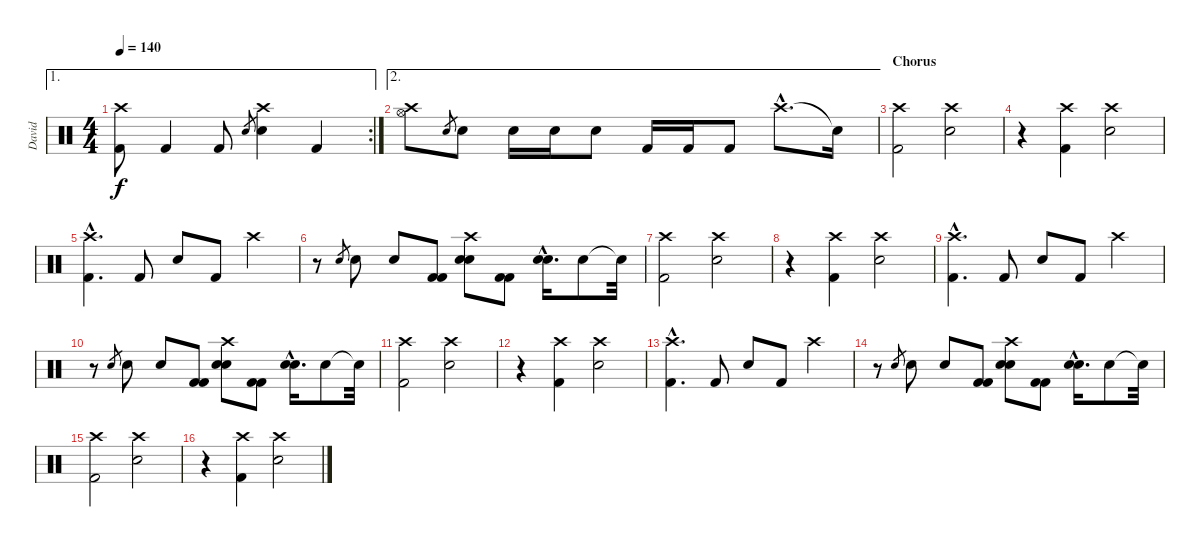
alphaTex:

\track ("David" "David") {instrument percussion}
\staff {score}
\articulation defaults
\ae 1
\rc 2
\ts (4 4)
\tempo 140
\clef neutral
\ks c
("Crash high (hit)" "Kick (hit) 2").8{dy f} "Kick (hit) 2".4 "Kick (hit) 2".8 "Snare (hit) 2".8{gr} ("Crash high (hit)" "Electric Snare (hit)").4 "Kick (hit) 2".4 |
\ae 2
("Crash high (hit)" "Hi-Hat (open)").8 "Electric Snare (hit)".8{gr} "Electric Snare (hit)".8 "Electric Snare (hit)".16 "Electric Snare (hit)".16 "Electric Snare (hit)".8 "Kick (hit) 2".16 "Kick (hit) 2".16 "Kick (hit) 2".8 "Crash high (hit)"{hac}.8{d} "Snare (hit)"{t}.16 |
\section ("" "Chorus")
("Crash high (hit)" "Kick (hit) 2").2 ("Crash high (hit)" "Electric Snare (hit)").2 |
r.4 ("Crash high (hit)" "Kick (hit) 2").4 ("Crash high (hit)" "Electric Snare (hit)").2 |
("Crash high (hit)"{hac} "Kick (hit) 2"{hac}).4{d} "Kick (hit) 2".8 "Electric Snare (hit)".8 "Kick (hit) 2".8 "Crash high (hit)".4 |
r.8 "Electric Snare (hit)".8{gr} "Electric Snare (hit)".8 "Electric Snare (hit)".8 ("Kick (hit) 2" "Kick (hit) 2").8 ("Crash high (hit)" "Electric Snare (hit)" "Electric Snare (hit)").8 ("Kick (hit) 2" "Kick (hit) 2").8 ("Electric Snare (hit)"{hac} "Electric Snare (hit)"{hac}).16{d} "Electric Snare (hit)".8 "Snare (hit)"{t}.32 |
("Crash high (hit)" "Kick (hit) 2").2 ("Crash high (hit)" "Electric Snare (hit)").2 |
r.4 ("Crash high (hit)" "Kick (hit) 2").4 ("Crash high (hit)" "Electric Snare (hit)").2 |
("Crash high (hit)"{hac} "Kick (hit) 2"{hac}).4{d} "Kick (hit) 2".8 "Electric Snare (hit)".8 "Kick (hit) 2".8 "Crash high (hit)".4 |
r.8 "Electric Snare (hit)".8{gr} "Electric Snare (hit)".8 "Electric Snare (hit)".8 ("Kick (hit) 2" "Kick (hit) 2").8 ("Crash high (hit)" "Electric Snare (hit)" "Electric Snare (hit)").8 ("Kick (hit) 2" "Kick (hit) 2").8 ("Electric Snare (hit)"{hac} "Electric Snare (hit)"{hac}).16{d} "Electric Snare (hit)".8 "Snare (hit)"{t}.32 |
("Crash high (hit)" "Kick (hit) 2").2 ("Crash high (hit)" "Electric Snare (hit)").2 |
r.4 ("Crash high (hit)" "Kick (hit) 2").4 ("Crash high (hit)" "Electric Snare (hit)").2 |
("Crash high (hit)"{hac} "Kick (hit) 2"{hac}).4{d} "Kick (hit) 2".8 "Electric Snare (hit)".8 "Kick (hit) 2".8 "Crash high (hit)".4 |
r.8 "Electric Snare (hit)".8{gr} "Electric Snare (hit)".8 "Electric Snare (hit)".8 ("Kick (hit) 2" "Kick (hit) 2").8 ("Crash high (hit)" "Electric Snare (hit)" "Electric Snare (hit)").8 ("Kick (hit) 2" "Kick (hit) 2").8 ("Electric Snare (hit)"{hac} "Electric Snare (hit)"{hac}).16{d} "Electric Snare (hit)".8 "Snare (hit)"{t}.32 |
("Crash high (hit)" "Kick (hit) 2").2 ("Crash high (hit)" "Electric Snare (hit)").2 |
r.4 ("Crash high (hit)" "Kick (hit) 2").4 ("Crash high (hit)" "Electric Snare (hit)").2
